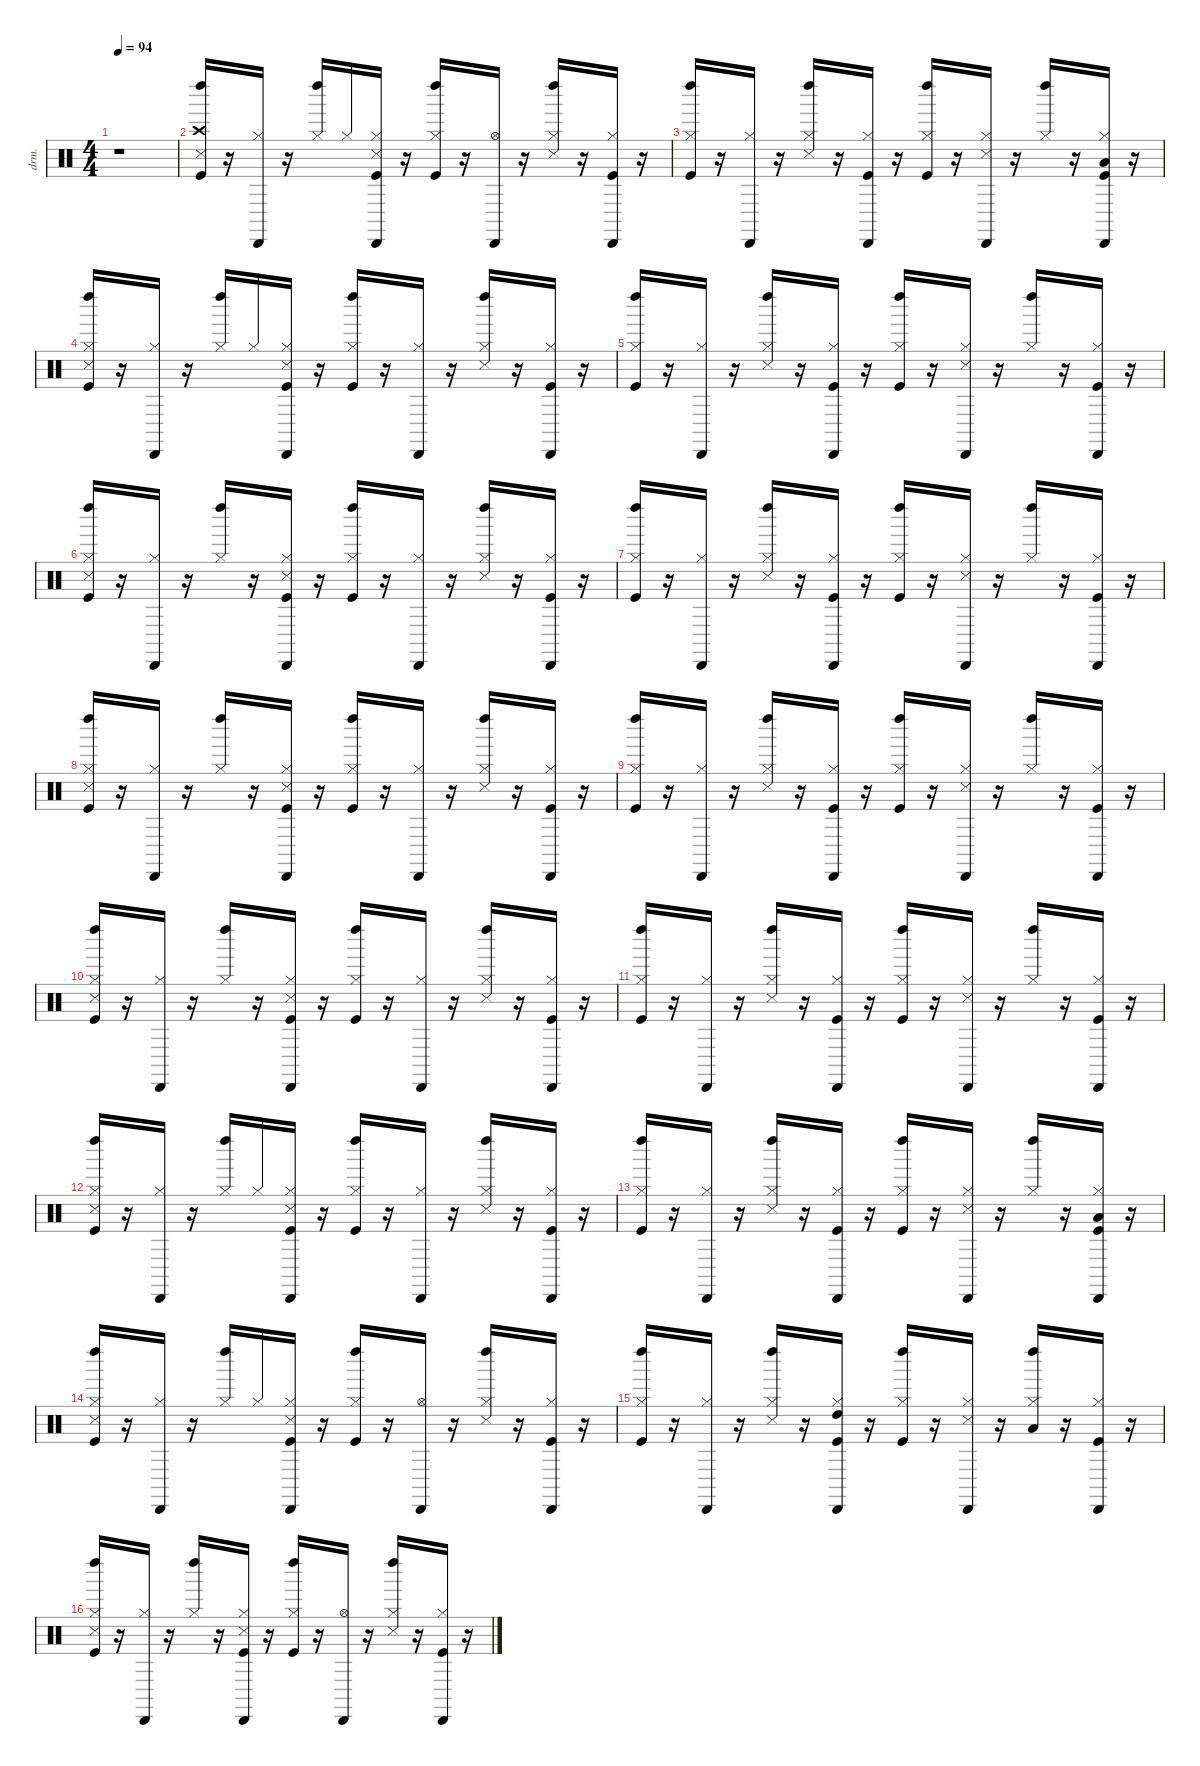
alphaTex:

\defaultSystemsLayout 4
\hideDynamics
\bracketExtendMode nobrackets
\otherSystemsTrackNameOrientation horizontal
\track ("Drums" "drm.") {instrument percussion}
\staff {score}
\articulation defaults
\ts (4 4)
\beaming (8 2 2 2 2)
\tempo 94
\clef neutral
\ks c
r.1{dy mf beam Down} |
("Left Maraca (hit)" "Crash high (hit)" "Snare (side stick) 3" "Kick (hit)").16{beam Up} r.16{beam Up} ("Cabasa (hit)" "Hi-Hat (closed)").16{dy p beam Up} r.16{beam Up} ("Left Maraca (hit)" "Hi-Hat (closed)").16{dy mf beam Up} "Hi-Hat (closed)".16{beam Up} ("Cabasa (hit)" "Hi-Hat (closed)" "Snare (side stick) 3" "Kick (hit)").16{dy p beam Up} r.16{beam Up} ("Left Maraca (hit)" "Hi-Hat (closed)" "Kick (hit)").16{dy mf beam Up} r.16{beam Up} ("Cabasa (hit)" "Hi-Hat (open)").16{dy p beam Up} r.16{beam Up} ("Left Maraca (hit)" "Hi-Hat (closed)" "Snare (side stick) 3").16{dy mf beam Up} r.16{beam Up} ("Cabasa (hit)" "Hi-Hat (closed)" "Kick (hit)").16{dy p beam Up} r.16{beam Up} |
("Left Maraca (hit)" "Hi-Hat (closed)" "Kick (hit)").16{dy mf beam Up} r.16{beam Up} ("Cabasa (hit)" "Hi-Hat (closed)").16{dy p beam Up} r.16{beam Up} ("Left Maraca (hit)" "Hi-Hat (closed)" "Snare (side stick) 3").16{dy mf beam Up} r.16{beam Up} ("Cabasa (hit)" "Hi-Hat (closed)" "Kick (hit)").16{dy p beam Up} r.16{beam Up} ("Left Maraca (hit)" "Hi-Hat (closed)" "Kick (hit)").16{dy mf beam Up} r.16{beam Up} ("Cabasa (hit)" "Hi-Hat (closed)" "Snare (side stick) 3").16{dy p beam Up} r.16{beam Up} ("Left Maraca (hit)" "Hi-Hat (closed)").16{dy mf beam Up} r.16{beam Up} ("Cabasa (hit)" "Low Tom (hit)" "Hi-Hat (closed)" "Kick (hit)").16{dy p beam Up} r.16{beam Up} |
("Left Maraca (hit)" "Hi-Hat (closed)" "Snare (side stick) 3" "Kick (hit)").16{dy mf beam Up} r.16{beam Up} ("Cabasa (hit)" "Hi-Hat (closed)").16{dy p beam Up} r.16{beam Up} ("Left Maraca (hit)" "Hi-Hat (closed)").16{dy mf beam Up} "Hi-Hat (closed)".16{beam Up} ("Cabasa (hit)" "Hi-Hat (closed)" "Snare (side stick) 3" "Kick (hit)").16{dy p beam Up} r.16{beam Up} ("Left Maraca (hit)" "Hi-Hat (closed)" "Kick (hit)").16{dy mf beam Up} r.16{beam Up} ("Cabasa (hit)" "Hi-Hat (closed)").16{dy p beam Up} r.16{beam Up} ("Left Maraca (hit)" "Hi-Hat (closed)" "Snare (side stick) 3").16{dy mf beam Up} r.16{beam Up} ("Cabasa (hit)" "Hi-Hat (closed)" "Kick (hit)").16{dy p beam Up} r.16{beam Up} |
("Left Maraca (hit)" "Hi-Hat (closed)" "Kick (hit)").16{dy mf beam Up} r.16{beam Up} ("Cabasa (hit)" "Hi-Hat (closed)").16{dy p beam Up} r.16{beam Up} ("Left Maraca (hit)" "Hi-Hat (closed)" "Snare (side stick) 3").16{dy mf beam Up} r.16{beam Up} ("Cabasa (hit)" "Hi-Hat (closed)" "Kick (hit)").16{dy p beam Up} r.16{beam Up} ("Left Maraca (hit)" "Hi-Hat (closed)" "Kick (hit)").16{dy mf beam Up} r.16{beam Up} ("Cabasa (hit)" "Hi-Hat (closed)" "Snare (side stick) 3").16{dy p beam Up} r.16{beam Up} ("Left Maraca (hit)" "Hi-Hat (closed)").16{dy mf beam Up} r.16{beam Up} ("Cabasa (hit)" "Hi-Hat (closed)" "Kick (hit)").16{dy p beam Up} r.16{beam Up} |
("Left Maraca (hit)" "Hi-Hat (closed)" "Snare (side stick) 3" "Kick (hit)").16{dy mf beam Up} r.16{beam Up} ("Cabasa (hit)" "Hi-Hat (closed)").16{dy p beam Up} r.16{beam Up} ("Left Maraca (hit)" "Hi-Hat (closed)").16{dy mf beam Up} r.16{beam Up} ("Cabasa (hit)" "Hi-Hat (closed)" "Snare (side stick) 3" "Kick (hit)").16{dy p beam Up} r.16{beam Up} ("Left Maraca (hit)" "Hi-Hat (closed)" "Kick (hit)").16{dy mf beam Up} r.16{beam Up} ("Cabasa (hit)" "Hi-Hat (closed)").16{dy p beam Up} r.16{beam Up} ("Left Maraca (hit)" "Hi-Hat (closed)" "Snare (side stick) 3").16{dy mf beam Up} r.16{beam Up} ("Cabasa (hit)" "Hi-Hat (closed)" "Kick (hit)").16{dy p beam Up} r.16{beam Up} |
("Left Maraca (hit)" "Hi-Hat (closed)" "Kick (hit)").16{dy mf beam Up} r.16{beam Up} ("Cabasa (hit)" "Hi-Hat (closed)").16{dy p beam Up} r.16{beam Up} ("Left Maraca (hit)" "Hi-Hat (closed)" "Snare (side stick) 3").16{dy mf beam Up} r.16{beam Up} ("Cabasa (hit)" "Hi-Hat (closed)" "Kick (hit)").16{dy p beam Up} r.16{beam Up} ("Left Maraca (hit)" "Hi-Hat (closed)" "Kick (hit)").16{dy mf beam Up} r.16{beam Up} ("Cabasa (hit)" "Hi-Hat (closed)" "Snare (side stick) 3").16{dy p beam Up} r.16{beam Up} ("Left Maraca (hit)" "Hi-Hat (closed)").16{dy mf beam Up} r.16{beam Up} ("Cabasa (hit)" "Hi-Hat (closed)" "Kick (hit)").16{dy p beam Up} r.16{beam Up} |
("Left Maraca (hit)" "Hi-Hat (closed)" "Snare (side stick) 3" "Kick (hit)").16{dy mf beam Up} r.16{beam Up} ("Cabasa (hit)" "Hi-Hat (closed)").16{dy p beam Up} r.16{beam Up} ("Left Maraca (hit)" "Hi-Hat (closed)").16{dy mf beam Up} r.16{beam Up} ("Cabasa (hit)" "Hi-Hat (closed)" "Snare (side stick) 3" "Kick (hit)").16{dy p beam Up} r.16{beam Up} ("Left Maraca (hit)" "Hi-Hat (closed)" "Kick (hit)").16{dy mf beam Up} r.16{beam Up} ("Cabasa (hit)" "Hi-Hat (closed)").16{dy p beam Up} r.16{beam Up} ("Left Maraca (hit)" "Hi-Hat (closed)" "Snare (side stick) 3").16{dy mf beam Up} r.16{beam Up} ("Cabasa (hit)" "Hi-Hat (closed)" "Kick (hit)").16{dy p beam Up} r.16{beam Up} |
("Left Maraca (hit)" "Hi-Hat (closed)" "Kick (hit)").16{dy mf beam Up} r.16{beam Up} ("Cabasa (hit)" "Hi-Hat (closed)").16{dy p beam Up} r.16{beam Up} ("Left Maraca (hit)" "Hi-Hat (closed)" "Snare (side stick) 3").16{dy mf beam Up} r.16{beam Up} ("Cabasa (hit)" "Hi-Hat (closed)" "Kick (hit)").16{dy p beam Up} r.16{beam Up} ("Left Maraca (hit)" "Hi-Hat (closed)" "Kick (hit)").16{dy mf beam Up} r.16{beam Up} ("Cabasa (hit)" "Hi-Hat (closed)" "Snare (side stick) 3").16{dy p beam Up} r.16{beam Up} ("Left Maraca (hit)" "Hi-Hat (closed)").16{dy mf beam Up} r.16{beam Up} ("Cabasa (hit)" "Hi-Hat (closed)" "Kick (hit)").16{dy p beam Up} r.16{beam Up} |
("Left Maraca (hit)" "Hi-Hat (closed)" "Snare (side stick) 3" "Kick (hit)").16{dy mf beam Up} r.16{beam Up} ("Cabasa (hit)" "Hi-Hat (closed)").16{dy p beam Up} r.16{beam Up} ("Left Maraca (hit)" "Hi-Hat (closed)").16{dy mf beam Up} r.16{beam Up} ("Cabasa (hit)" "Hi-Hat (closed)" "Snare (side stick) 3" "Kick (hit)").16{dy p beam Up} r.16{beam Up} ("Left Maraca (hit)" "Hi-Hat (closed)" "Kick (hit)").16{dy mf beam Up} r.16{beam Up} ("Cabasa (hit)" "Hi-Hat (closed)").16{dy p beam Up} r.16{beam Up} ("Left Maraca (hit)" "Hi-Hat (closed)" "Snare (side stick) 3").16{dy mf beam Up} r.16{beam Up} ("Cabasa (hit)" "Hi-Hat (closed)" "Kick (hit)").16{dy p beam Up} r.16{beam Up} |
("Left Maraca (hit)" "Hi-Hat (closed)" "Kick (hit)").16{dy mf beam Up} r.16{beam Up} ("Cabasa (hit)" "Hi-Hat (closed)").16{dy p beam Up} r.16{beam Up} ("Left Maraca (hit)" "Hi-Hat (closed)" "Snare (side stick) 3").16{dy mf beam Up} r.16{beam Up} ("Cabasa (hit)" "Hi-Hat (closed)" "Kick (hit)").16{dy p beam Up} r.16{beam Up} ("Left Maraca (hit)" "Hi-Hat (closed)" "Kick (hit)").16{dy mf beam Up} r.16{beam Up} ("Cabasa (hit)" "Hi-Hat (closed)" "Snare (side stick) 3").16{dy p beam Up} r.16{beam Up} ("Left Maraca (hit)" "Hi-Hat (closed)").16{dy mf beam Up} r.16{beam Up} ("Cabasa (hit)" "Hi-Hat (closed)" "Kick (hit)").16{dy p beam Up} r.16{beam Up} |
("Left Maraca (hit)" "Hi-Hat (closed)" "Snare (side stick) 3" "Kick (hit)").16{dy mf beam Up} r.16{beam Up} ("Cabasa (hit)" "Hi-Hat (closed)").16{dy p beam Up} r.16{beam Up} ("Left Maraca (hit)" "Hi-Hat (closed)").16{dy mf beam Up} "Hi-Hat (closed)".16{beam Up} ("Cabasa (hit)" "Hi-Hat (closed)" "Snare (side stick) 3" "Kick (hit)").16{dy p beam Up} r.16{beam Up} ("Left Maraca (hit)" "Hi-Hat (closed)" "Kick (hit)").16{dy mf beam Up} r.16{beam Up} ("Cabasa (hit)" "Hi-Hat (closed)").16{dy p beam Up} r.16{beam Up} ("Left Maraca (hit)" "Hi-Hat (closed)" "Snare (side stick) 3").16{dy mf beam Up} r.16{beam Up} ("Cabasa (hit)" "Hi-Hat (closed)" "Kick (hit)").16{dy p beam Up} r.16{beam Up} |
("Left Maraca (hit)" "Hi-Hat (closed)" "Kick (hit)").16{dy mf beam Up} r.16{beam Up} ("Cabasa (hit)" "Hi-Hat (closed)").16{dy p beam Up} r.16{beam Up} ("Left Maraca (hit)" "Hi-Hat (closed)" "Snare (side stick) 3").16{dy mf beam Up} r.16{beam Up} ("Cabasa (hit)" "Hi-Hat (closed)" "Kick (hit)").16{dy p beam Up} r.16{beam Up} ("Left Maraca (hit)" "Hi-Hat (closed)" "Kick (hit)").16{dy mf beam Up} r.16{beam Up} ("Cabasa (hit)" "Hi-Hat (closed)" "Snare (side stick) 3").16{dy p beam Up} r.16{beam Up} ("Left Maraca (hit)" "Hi-Hat (closed)").16{dy mf beam Up} r.16{beam Up} ("Cabasa (hit)" "Low Tom (hit)" "Hi-Hat (closed)" "Kick (hit)").16{dy p beam Up} r.16{beam Up} |
("Left Maraca (hit)" "Hi-Hat (closed)" "Snare (side stick) 3" "Kick (hit)").16{dy mf beam Up} r.16{beam Up} ("Cabasa (hit)" "Hi-Hat (closed)").16{dy p beam Up} r.16{beam Up} ("Left Maraca (hit)" "Hi-Hat (closed)").16{dy mf beam Up} "Hi-Hat (closed)".16{beam Up} ("Cabasa (hit)" "Hi-Hat (closed)" "Snare (side stick) 3" "Kick (hit)").16{dy p beam Up} r.16{beam Up} ("Left Maraca (hit)" "Hi-Hat (closed)" "Kick (hit)").16{dy mf beam Up} r.16{beam Up} ("Cabasa (hit)" "Hi-Hat (open)").16{dy p beam Up} r.16{beam Up} ("Left Maraca (hit)" "Hi-Hat (closed)" "Snare (side stick) 3").16{dy mf beam Up} r.16{beam Up} ("Cabasa (hit)" "Hi-Hat (closed)" "Kick (hit)").16{dy p beam Up} r.16{beam Up} |
("Left Maraca (hit)" "Hi-Hat (closed)" "Kick (hit)").16{dy mf beam Up} r.16{beam Up} ("Cabasa (hit)" "Hi-Hat (closed)").16{dy p beam Up} r.16{beam Up} ("Left Maraca (hit)" "Hi-Hat (closed)" "Snare (side stick) 3").16{dy mf beam Up} r.16{beam Up} ("Cabasa (hit)" "High Tom (hit)" "Hi-Hat (closed)" "Kick (hit)").16{dy p beam Up} r.16{beam Up} ("Left Maraca (hit)" "Hi-Hat (closed)" "Kick (hit)").16{dy mf beam Up} r.16{beam Up} ("Cabasa (hit)" "Hi-Hat (closed)" "Snare (side stick) 3").16{dy p beam Up} r.16{beam Up} ("Left Maraca (hit)" "Low Tom (hit)" "Hi-Hat (closed)").16{dy mf beam Up} r.16{beam Up} ("Cabasa (hit)" "Hi-Hat (closed)" "Kick (hit)").16{dy p beam Up} r.16{beam Up} |
("Left Maraca (hit)" "Hi-Hat (closed)" "Snare (side stick) 3" "Kick (hit)").16{dy mf beam Up} r.16{beam Up} ("Cabasa (hit)" "Hi-Hat (closed)").16{dy p beam Up} r.16{beam Up} ("Left Maraca (hit)" "Hi-Hat (closed)").16{dy mf beam Up} r.16{beam Up} ("Cabasa (hit)" "Hi-Hat (closed)" "Snare (side stick) 3" "Kick (hit)").16{dy p beam Up} r.16{beam Up} ("Left Maraca (hit)" "Hi-Hat (closed)" "Kick (hit)").16{dy mf beam Up} r.16{beam Up} ("Cabasa (hit)" "Hi-Hat (open)").16{dy p beam Up} r.16{beam Up} ("Left Maraca (hit)" "Hi-Hat (closed)" "Snare (side stick) 3").16{dy mf beam Up} r.16{beam Up} ("Cabasa (hit)" "Hi-Hat (closed)" "Kick (hit)").16{dy p beam Up} r.16{beam Up}
